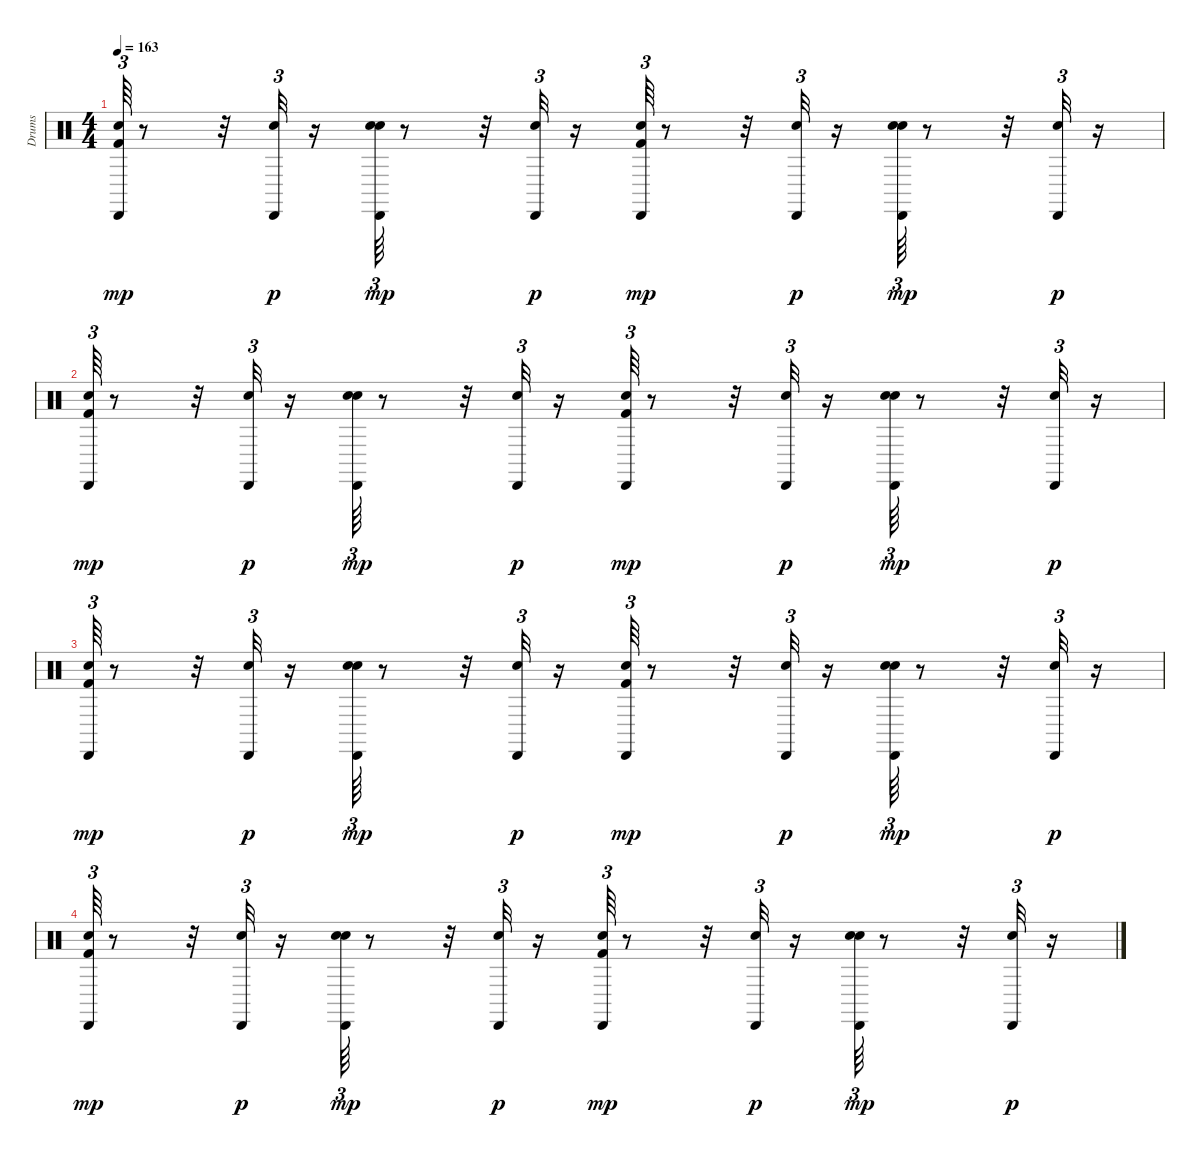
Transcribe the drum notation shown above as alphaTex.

\track ("Drums               " "Drums     ") {instrument percussion}
\staff {score}
\articulation defaults
\ts (4 4)
\tempo 163
\clef neutral
\ks c
("Kick (hit) 2" "Snare (hit) 2" "Cabasa (hit)").64{tu (3 2) dy mp} r.8 r.32 ("Snare (hit) 2" "Cabasa (hit)").32{tu (3 2) dy p} r.16 ("Snare (hit) 2" "Hand Clap (hit)" "Cabasa (hit)").64{tu (3 2) dy mp} r.8 r.32 ("Snare (hit) 2" "Cabasa (hit)").32{tu (3 2) dy p} r.16 ("Kick (hit) 2" "Snare (hit) 2" "Cabasa (hit)").64{tu (3 2) dy mp} r.8 r.32 ("Snare (hit) 2" "Cabasa (hit)").32{tu (3 2) dy p} r.16 ("Snare (hit) 2" "Hand Clap (hit)" "Cabasa (hit)").64{tu (3 2) dy mp} r.8 r.32 ("Snare (hit) 2" "Cabasa (hit)").32{tu (3 2) dy p} r.16 |
("Kick (hit) 2" "Snare (hit) 2" "Cabasa (hit)").64{tu (3 2) dy mp} r.8 r.32 ("Snare (hit) 2" "Cabasa (hit)").32{tu (3 2) dy p} r.16 ("Snare (hit) 2" "Hand Clap (hit)" "Cabasa (hit)").64{tu (3 2) dy mp} r.8 r.32 ("Snare (hit) 2" "Cabasa (hit)").32{tu (3 2) dy p} r.16 ("Kick (hit) 2" "Snare (hit) 2" "Cabasa (hit)").64{tu (3 2) dy mp} r.8 r.32 ("Snare (hit) 2" "Cabasa (hit)").32{tu (3 2) dy p} r.16 ("Snare (hit) 2" "Hand Clap (hit)" "Cabasa (hit)").64{tu (3 2) dy mp} r.8 r.32 ("Snare (hit) 2" "Cabasa (hit)").32{tu (3 2) dy p} r.16 |
("Kick (hit) 2" "Snare (hit) 2" "Cabasa (hit)").64{tu (3 2) dy mp} r.8 r.32 ("Snare (hit) 2" "Cabasa (hit)").32{tu (3 2) dy p} r.16 ("Snare (hit) 2" "Hand Clap (hit)" "Cabasa (hit)").64{tu (3 2) dy mp} r.8 r.32 ("Snare (hit) 2" "Cabasa (hit)").32{tu (3 2) dy p} r.16 ("Kick (hit) 2" "Snare (hit) 2" "Cabasa (hit)").64{tu (3 2) dy mp} r.8 r.32 ("Snare (hit) 2" "Cabasa (hit)").32{tu (3 2) dy p} r.16 ("Snare (hit) 2" "Hand Clap (hit)" "Cabasa (hit)").64{tu (3 2) dy mp} r.8 r.32 ("Snare (hit) 2" "Cabasa (hit)").32{tu (3 2) dy p} r.16 |
("Kick (hit) 2" "Snare (hit) 2" "Cabasa (hit)").64{tu (3 2) dy mp} r.8 r.32 ("Snare (hit) 2" "Cabasa (hit)").32{tu (3 2) dy p} r.16 ("Snare (hit) 2" "Hand Clap (hit)" "Cabasa (hit)").64{tu (3 2) dy mp} r.8 r.32 ("Snare (hit) 2" "Cabasa (hit)").32{tu (3 2) dy p} r.16 ("Kick (hit) 2" "Snare (hit) 2" "Cabasa (hit)").64{tu (3 2) dy mp} r.8 r.32 ("Snare (hit) 2" "Cabasa (hit)").32{tu (3 2) dy p} r.16 ("Snare (hit) 2" "Hand Clap (hit)" "Cabasa (hit)").64{tu (3 2) dy mp} r.8 r.32 ("Snare (hit) 2" "Cabasa (hit)").32{tu (3 2) dy p} r.16
